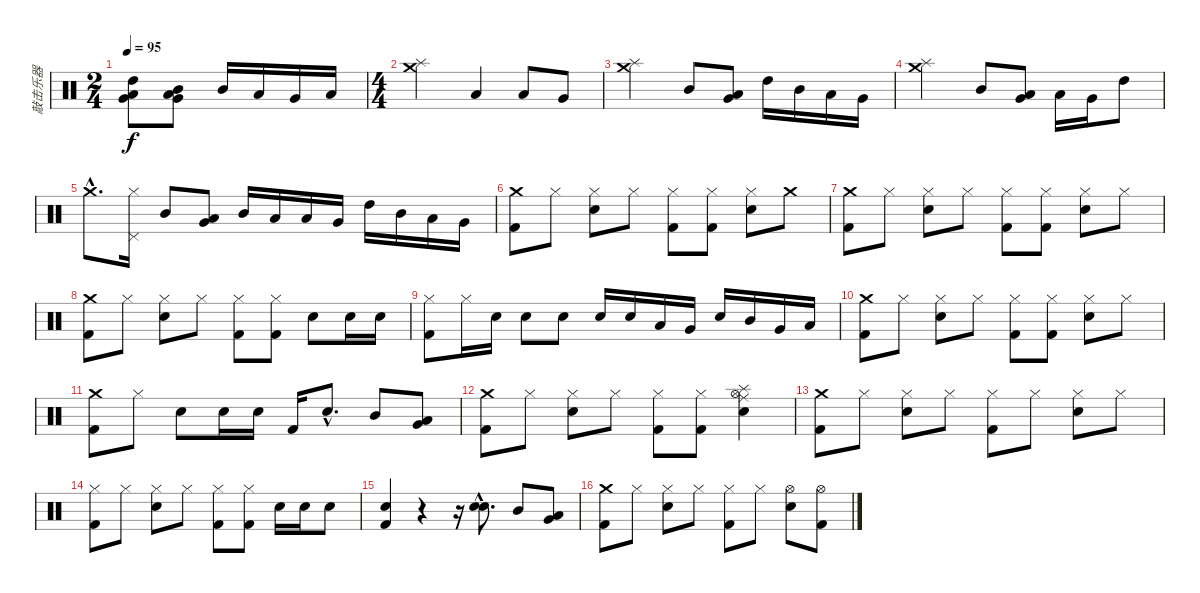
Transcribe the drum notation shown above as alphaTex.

\track ("敲击乐器" "敲击乐器") {instrument percussion}
\staff {score}
\articulation defaults
\ts (2 4)
\tempo 95
\clef neutral
\ks c
("High Tom (hit)" "Low Tom (hit)" "Very Low Tom (hit)").8{dy f} ("Very Low Tom (hit)" "Mid Tom (hit)" "Low Tom (hit)").8 "Mid Tom (hit)".16 "Low Tom (hit)".16 "Very Low Tom (hit)".16 "Low Tom (hit)".16 |
\ts (4 4)
("Crash medium (hit)" "Splash (hit)").2 "Low Tom (hit)".4 "Low Tom (hit)".8 "Very Low Tom (hit)".8 |
("Crash medium (hit)" "Splash (hit)").2 "Mid Tom (hit)".8 ("Very Low Tom (hit)" "Low Tom (hit)").8 "High Tom (hit)".16 "Mid Tom (hit)".16 "Low Tom (hit)".16 "Very Low Tom (hit)".16 |
("Crash medium (hit)" "Splash (hit)").2 "Mid Tom (hit)".8 ("Very Low Tom (hit)" "Low Tom (hit)").8 "Low Tom (hit)".16 "Very Low Tom (hit)".16 "High Tom (hit)".8 |
"Crash medium (hit)"{hac}.8{d} ("Pedal Hi-Hat (hit)" "Hi-Hat (closed)").16 "Mid Tom (hit)".8 ("Very Low Tom (hit)" "Low Tom (hit)").8 "Mid Tom (hit)".16 "Low Tom (hit)".16 "Low Tom (hit)".16 "Very Low Tom (hit)".16 "High Tom (hit)".16 "Mid Tom (hit)".16 "Low Tom (hit)".16 "Very Low Tom (hit)".16 |
("Crash medium (hit)" "Kick (hit) 2").8 "Hi-Hat (closed)".8 ("Hi-Hat (closed)" "Electric Snare (hit)").8 "Hi-Hat (closed)".8 ("Hi-Hat (closed)" "Kick (hit) 2").8 ("Hi-Hat (closed)" "Kick (hit) 2").8 ("Hi-Hat (closed)" "Electric Snare (hit)").8 "Crash medium (hit)".8 |
("Crash medium (hit)" "Kick (hit) 2").8 "Hi-Hat (closed)".8 ("Hi-Hat (closed)" "Electric Snare (hit)").8 "Hi-Hat (closed)".8 ("Hi-Hat (closed)" "Kick (hit) 2").8 ("Hi-Hat (closed)" "Kick (hit) 2").8 ("Hi-Hat (closed)" "Electric Snare (hit)").8 "Hi-Hat (closed)".8 |
("Crash medium (hit)" "Kick (hit) 2").8 "Hi-Hat (closed)".8 ("Hi-Hat (closed)" "Electric Snare (hit)").8 "Hi-Hat (closed)".8 ("Hi-Hat (closed)" "Kick (hit) 2").8 ("Hi-Hat (closed)" "Kick (hit) 2").8 "Electric Snare (hit)".8 "Electric Snare (hit)".16 "Electric Snare (hit)".16 |
("Hi-Hat (closed)" "Kick (hit) 2").8 "Hi-Hat (closed)".16 "Electric Snare (hit)".16 "Electric Snare (hit)".8 "Electric Snare (hit)".8 "Electric Snare (hit)".16 "Electric Snare (hit)".16 "Low Tom (hit)".16 "Very Low Tom (hit)".16 "Electric Snare (hit)".16 "Mid Tom (hit)".16 "Very Low Tom (hit)".16 "Low Tom (hit)".16 |
("Crash medium (hit)" "Kick (hit) 2").8 "Hi-Hat (closed)".8 ("Hi-Hat (closed)" "Electric Snare (hit)").8 "Hi-Hat (closed)".8 ("Hi-Hat (closed)" "Kick (hit) 2").8 ("Hi-Hat (closed)" "Kick (hit) 2").8 ("Hi-Hat (closed)" "Electric Snare (hit)").8 "Hi-Hat (closed)".8 |
("Crash medium (hit)" "Kick (hit) 2").8 "Hi-Hat (closed)".8 "Electric Snare (hit)".8 "Electric Snare (hit)".16 "Electric Snare (hit)".16 "Kick (hit) 2".16 "Electric Snare (hit)"{hac}.8{d} "Mid Tom (hit)".8 ("Very Low Tom (hit)" "Low Tom (hit)").8 |
("Crash medium (hit)" "Kick (hit) 2").8 "Hi-Hat (closed)".8 ("Hi-Hat (closed)" "Electric Snare (hit)").8 "Hi-Hat (closed)".8 ("Hi-Hat (closed)" "Kick (hit) 2").8 ("Hi-Hat (closed)" "Kick (hit) 2").8 ("Hi-Hat (open)" "Electric Snare (hit)" "Splash (hit)" "Ride (middle)").4 |
("Crash medium (hit)" "Kick (hit) 2").8 "Hi-Hat (closed)".8 ("Hi-Hat (closed)" "Electric Snare (hit)").8 "Hi-Hat (closed)".8 ("Hi-Hat (closed)" "Kick (hit) 2").8 "Hi-Hat (closed)".8 ("Hi-Hat (closed)" "Electric Snare (hit)").8 "Hi-Hat (closed)".8 |
("Hi-Hat (closed)" "Kick (hit) 2").8 "Hi-Hat (closed)".8 ("Hi-Hat (closed)" "Electric Snare (hit)").8 "Hi-Hat (closed)".8 ("Hi-Hat (closed)" "Kick (hit) 2").8 ("Hi-Hat (closed)" "Kick (hit) 2").8 "Electric Snare (hit)".16 "Electric Snare (hit)".16 "Electric Snare (hit)".8 |
("Electric Snare (hit)" "Kick (hit) 2").4 r.4 r.16 ("Electric Snare (hit)"{hac} "Snare (hit) 2"{hac}).8{d} "Mid Tom (hit)".8 ("Very Low Tom (hit)" "Low Tom (hit)").8 |
("Crash medium (hit)" "Kick (hit) 2").8 "Hi-Hat (closed)".8 ("Hi-Hat (closed)" "Electric Snare (hit)").8 "Hi-Hat (closed)".8 ("Hi-Hat (closed)" "Kick (hit) 2").8 "Hi-Hat (closed)".8 ("Hi-Hat (open)" "Electric Snare (hit)").8 ("Hi-Hat (open)" "Kick (hit) 2").8
